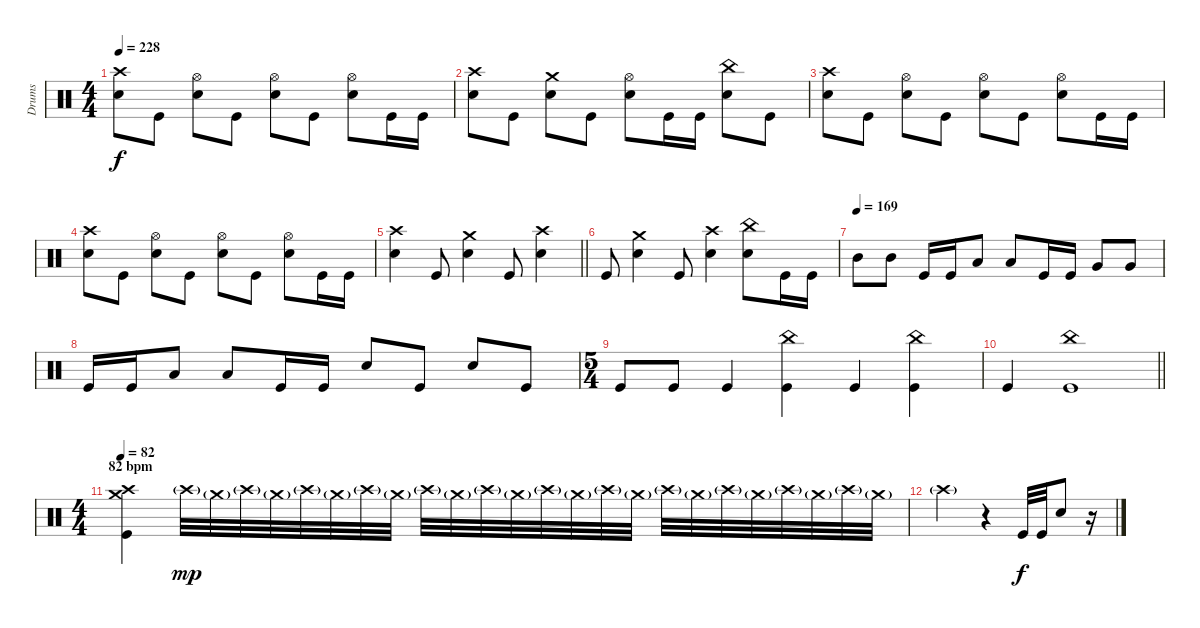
\track ("Drums" "Drums") {instrument percussion}
\staff
\articulation defaults
\ts (4 4)
\tempo 228
\clef neutral
\ks c
("Crash high (hit)" "Electric Snare (hit)").8{dy f} "Kick (hit)".8 ("Hi-Hat (open)" "Electric Snare (hit)").8 "Kick (hit)".8 ("Hi-Hat (open)" "Electric Snare (hit)").8 "Kick (hit)".8 ("Hi-Hat (open)" "Electric Snare (hit)").8 "Kick (hit)".16 "Kick (hit)".16 |
("Crash high (hit)" "Electric Snare (hit)").8 "Kick (hit)".8 ("Crash medium (hit)" "Electric Snare (hit)").8 "Kick (hit)".8 ("Hi-Hat (open)" "Electric Snare (hit)").8 "Kick (hit)".16 "Kick (hit)".16 ("China (hit)" "Electric Snare (hit)").8 "Kick (hit)".8 |
("Crash high (hit)" "Electric Snare (hit)").8 "Kick (hit)".8 ("Hi-Hat (open)" "Electric Snare (hit)").8 "Kick (hit)".8 ("Hi-Hat (open)" "Electric Snare (hit)").8 "Kick (hit)".8 ("Hi-Hat (open)" "Electric Snare (hit)").8 "Kick (hit)".16 "Kick (hit)".16 |
("Crash high (hit)" "Electric Snare (hit)").8 "Kick (hit)".8 ("Hi-Hat (open)" "Electric Snare (hit)").8 "Kick (hit)".8 ("Hi-Hat (open)" "Electric Snare (hit)").8 "Kick (hit)".8 ("Hi-Hat (open)" "Electric Snare (hit)").8 "Kick (hit)".16 "Kick (hit)".16 |
\barLineRight lightlight
("Crash high (hit)" "Electric Snare (hit)").4 "Kick (hit)".8 ("Crash medium (hit)" "Electric Snare (hit)").4 "Kick (hit)".8 ("Crash high (hit)" "Electric Snare (hit)").4 |
"Kick (hit)".8 ("Crash medium (hit)" "Electric Snare (hit)").4 "Kick (hit)".8 ("Crash high (hit)" "Electric Snare (hit)").4 ("China (hit)" "Electric Snare (hit)").8 "Kick (hit)".16 "Kick (hit)".16 |
\tempo (169)
"Mid Tom (hit)".8 "Mid Tom (hit)".8 "Kick (hit)".16 "Kick (hit)".16 "Low Tom (hit)".8 "Low Tom (hit)".8 "Kick (hit)".16 "Kick (hit)".16 "Very Low Tom (hit)".8 "Very Low Tom (hit)".8 |
"Kick (hit)".16 "Kick (hit)".16 "Low Floor Tom (hit)".8 "Low Floor Tom (hit)".8 "Kick (hit)".16 "Kick (hit)".16 "Electric Snare (hit)".8 "Kick (hit)".8 "Electric Snare (hit)".8 "Kick (hit)".8 |
\ts (5 4)
"Kick (hit)".8 "Kick (hit)".8 "Kick (hit)".4 ("China (hit)" "Kick (hit)").4 "Kick (hit)".4 ("China (hit)" "Kick (hit)").4 |
\barLineRight lightlight "Kick (hit)".4
("China (hit)" "Kick (hit)").1 |
\ts (4 4)
\section ("" "82 bpm")
\tempo 82
("Crash high (hit)" "Crash medium (hit)" "Kick (hit)").4 "Crash high (hit)"{g}.32{dy mp} "Crash medium (hit)"{g}.32 "Crash high (hit)"{g}.32 "Crash medium (hit)"{g}.32 "Crash high (hit)"{g}.32 "Crash medium (hit)"{g}.32 "Crash high (hit)"{g}.32 "Crash medium (hit)"{g}.32 "Crash high (hit)"{g}.32 "Crash medium (hit)"{g}.32 "Crash high (hit)"{g}.32 "Crash medium (hit)"{g}.32 "Crash high (hit)"{g}.32 "Crash medium (hit)"{g}.32 "Crash high (hit)"{g}.32 "Crash medium (hit)"{g}.32 "Crash high (hit)"{g}.32 "Crash medium (hit)"{g}.32 "Crash high (hit)"{g}.32 "Crash medium (hit)"{g}.32 "Crash high (hit)"{g}.32 "Crash medium (hit)"{g}.32 "Crash high (hit)"{g}.32 "Crash medium (hit)"{g}.32 |
"Crash high (hit)"{g}.2 r.4 "Kick (hit)".32{dy f} "Kick (hit)".32 "Electric Snare (hit)".8 r.16
